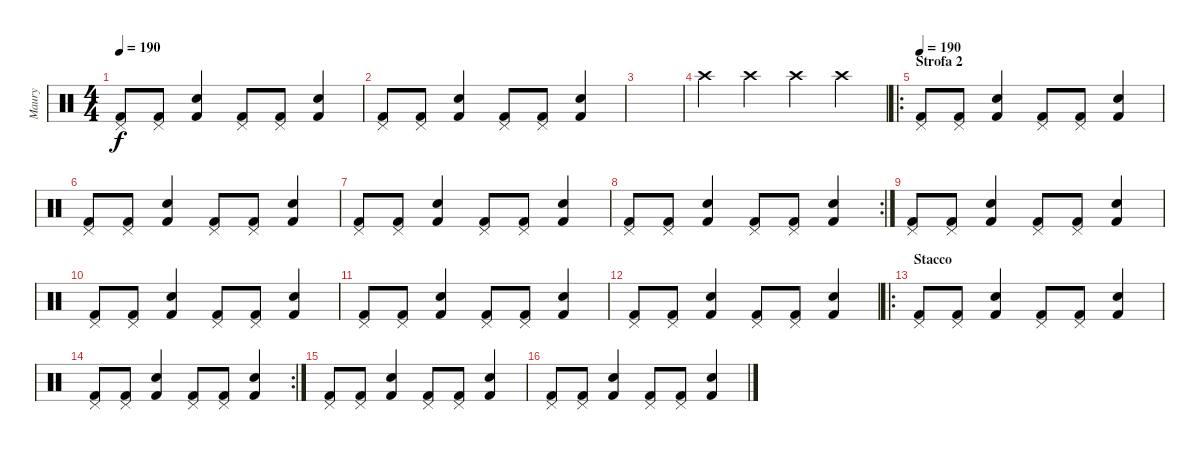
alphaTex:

\track ("Maury" "Maury") {instrument percussion}
\staff {score}
\articulation defaults
\ts (4 4)
\tempo 190
\clef neutral
\ks c
("Pedal Hi-Hat (hit)" "Kick (hit) 2").8{dy f} ("Pedal Hi-Hat (hit)" "Kick (hit) 2").8 ("Snare (hit) 2" "Kick (hit) 2").4 ("Pedal Hi-Hat (hit)" "Kick (hit) 2").8 ("Pedal Hi-Hat (hit)" "Kick (hit) 2").8 ("Snare (hit) 2" "Kick (hit) 2").4 |
("Pedal Hi-Hat (hit)" "Kick (hit) 2").8 ("Pedal Hi-Hat (hit)" "Kick (hit) 2").8 ("Snare (hit) 2" "Kick (hit) 2").4 ("Pedal Hi-Hat (hit)" "Kick (hit) 2").8 ("Pedal Hi-Hat (hit)" "Kick (hit) 2").8 ("Snare (hit) 2" "Kick (hit) 2").4 |
|
"Crash high (hit)".4 "Crash high (hit)".4 "Crash high (hit)".4 "Crash high (hit)".4 |
\ro
\section ("" "Strofa 2")
\tempo 190
("Pedal Hi-Hat (hit)" "Kick (hit) 2").8 ("Pedal Hi-Hat (hit)" "Kick (hit) 2").8 ("Snare (hit) 2" "Kick (hit) 2").4 ("Pedal Hi-Hat (hit)" "Kick (hit) 2").8 ("Pedal Hi-Hat (hit)" "Kick (hit) 2").8 ("Snare (hit) 2" "Kick (hit) 2").4 |
("Pedal Hi-Hat (hit)" "Kick (hit) 2").8 ("Pedal Hi-Hat (hit)" "Kick (hit) 2").8 ("Snare (hit) 2" "Kick (hit) 2").4 ("Pedal Hi-Hat (hit)" "Kick (hit) 2").8 ("Pedal Hi-Hat (hit)" "Kick (hit) 2").8 ("Snare (hit) 2" "Kick (hit) 2").4 |
("Pedal Hi-Hat (hit)" "Kick (hit) 2").8 ("Pedal Hi-Hat (hit)" "Kick (hit) 2").8 ("Snare (hit) 2" "Kick (hit) 2").4 ("Pedal Hi-Hat (hit)" "Kick (hit) 2").8 ("Pedal Hi-Hat (hit)" "Kick (hit) 2").8 ("Snare (hit) 2" "Kick (hit) 2").4 |
\rc 2
("Pedal Hi-Hat (hit)" "Kick (hit) 2").8 ("Pedal Hi-Hat (hit)" "Kick (hit) 2").8 ("Snare (hit) 2" "Kick (hit) 2").4 ("Pedal Hi-Hat (hit)" "Kick (hit) 2").8 ("Pedal Hi-Hat (hit)" "Kick (hit) 2").8 ("Snare (hit) 2" "Kick (hit) 2").4 |
("Pedal Hi-Hat (hit)" "Kick (hit) 2").8 ("Pedal Hi-Hat (hit)" "Kick (hit) 2").8 ("Snare (hit) 2" "Kick (hit) 2").4 ("Pedal Hi-Hat (hit)" "Kick (hit) 2").8 ("Pedal Hi-Hat (hit)" "Kick (hit) 2").8 ("Snare (hit) 2" "Kick (hit) 2").4 |
("Pedal Hi-Hat (hit)" "Kick (hit) 2").8 ("Pedal Hi-Hat (hit)" "Kick (hit) 2").8 ("Snare (hit) 2" "Kick (hit) 2").4 ("Pedal Hi-Hat (hit)" "Kick (hit) 2").8 ("Pedal Hi-Hat (hit)" "Kick (hit) 2").8 ("Snare (hit) 2" "Kick (hit) 2").4 |
("Pedal Hi-Hat (hit)" "Kick (hit) 2").8 ("Pedal Hi-Hat (hit)" "Kick (hit) 2").8 ("Snare (hit) 2" "Kick (hit) 2").4 ("Pedal Hi-Hat (hit)" "Kick (hit) 2").8 ("Pedal Hi-Hat (hit)" "Kick (hit) 2").8 ("Snare (hit) 2" "Kick (hit) 2").4 |
("Pedal Hi-Hat (hit)" "Kick (hit) 2").8 ("Pedal Hi-Hat (hit)" "Kick (hit) 2").8 ("Snare (hit) 2" "Kick (hit) 2").4 ("Pedal Hi-Hat (hit)" "Kick (hit) 2").8 ("Pedal Hi-Hat (hit)" "Kick (hit) 2").8 ("Snare (hit) 2" "Kick (hit) 2").4 |
\ro
\section ("" "Stacco")
("Pedal Hi-Hat (hit)" "Kick (hit) 2").8 ("Pedal Hi-Hat (hit)" "Kick (hit) 2").8 ("Snare (hit) 2" "Kick (hit) 2").4 ("Pedal Hi-Hat (hit)" "Kick (hit) 2").8 ("Pedal Hi-Hat (hit)" "Kick (hit) 2").8 ("Snare (hit) 2" "Kick (hit) 2").4 |
\rc 2
("Pedal Hi-Hat (hit)" "Kick (hit) 2").8 ("Pedal Hi-Hat (hit)" "Kick (hit) 2").8 ("Snare (hit) 2" "Kick (hit) 2").4 ("Pedal Hi-Hat (hit)" "Kick (hit) 2").8 ("Pedal Hi-Hat (hit)" "Kick (hit) 2").8 ("Snare (hit) 2" "Kick (hit) 2").4 |
("Pedal Hi-Hat (hit)" "Kick (hit) 2").8 ("Pedal Hi-Hat (hit)" "Kick (hit) 2").8 ("Snare (hit) 2" "Kick (hit) 2").4 ("Pedal Hi-Hat (hit)" "Kick (hit) 2").8 ("Pedal Hi-Hat (hit)" "Kick (hit) 2").8 ("Snare (hit) 2" "Kick (hit) 2").4 |
("Pedal Hi-Hat (hit)" "Kick (hit) 2").8 ("Pedal Hi-Hat (hit)" "Kick (hit) 2").8 ("Snare (hit) 2" "Kick (hit) 2").4 ("Pedal Hi-Hat (hit)" "Kick (hit) 2").8 ("Pedal Hi-Hat (hit)" "Kick (hit) 2").8 ("Snare (hit) 2" "Kick (hit) 2").4
